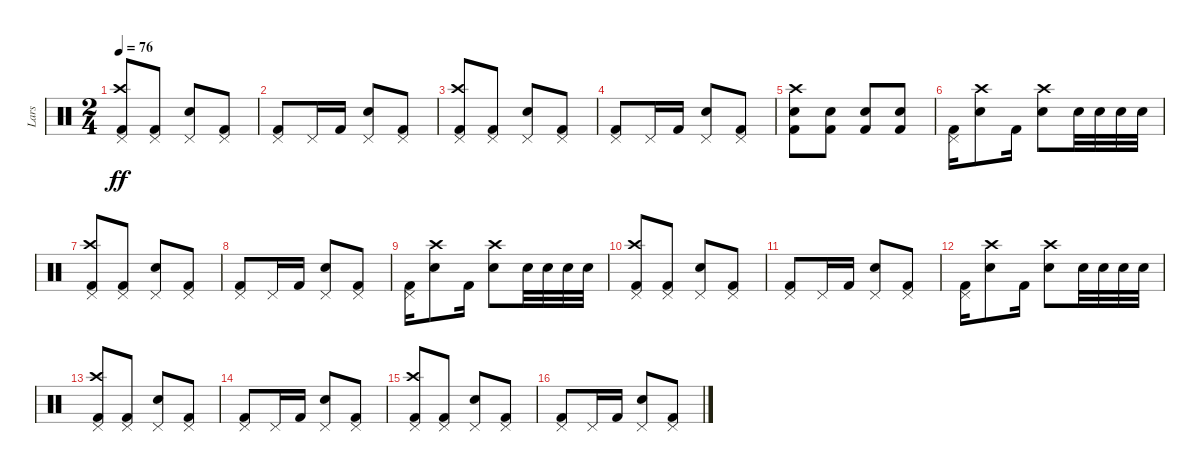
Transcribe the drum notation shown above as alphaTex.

\track ("Lars" "Lars") {instrument percussion}
\staff {score}
\articulation defaults
\ts (2 4)
\tempo 76
\clef neutral
\ks c
("Pedal Hi-Hat (hit)" "Crash high (hit)" "Kick (hit) 2").8{dy ff} ("Pedal Hi-Hat (hit)" "Kick (hit) 2").8 ("Pedal Hi-Hat (hit)" "Snare (hit) 2").8 ("Pedal Hi-Hat (hit)" "Kick (hit) 2").8 |
("Pedal Hi-Hat (hit)" "Kick (hit) 2").8 "Pedal Hi-Hat (hit)".16 "Kick (hit) 2".16 ("Pedal Hi-Hat (hit)" "Snare (hit) 2").8 ("Pedal Hi-Hat (hit)" "Kick (hit) 2").8 |
("Pedal Hi-Hat (hit)" "Crash high (hit)" "Kick (hit) 2").8 ("Pedal Hi-Hat (hit)" "Kick (hit) 2").8 ("Pedal Hi-Hat (hit)" "Snare (hit) 2").8 ("Pedal Hi-Hat (hit)" "Kick (hit) 2").8 |
("Pedal Hi-Hat (hit)" "Kick (hit) 2").8 "Pedal Hi-Hat (hit)".16 "Kick (hit) 2".16 ("Pedal Hi-Hat (hit)" "Snare (hit) 2").8 ("Pedal Hi-Hat (hit)" "Kick (hit) 2").8 |
("Crash high (hit)" "Snare (hit) 2" "Kick (hit) 2").8 ("Snare (hit) 2" "Kick (hit) 2").8 ("Snare (hit) 2" "Kick (hit) 2").8 ("Snare (hit) 2" "Kick (hit) 2").8 |
("Pedal Hi-Hat (hit)" "Kick (hit) 2").16 ("Crash high (hit)" "Snare (hit) 2").8 "Kick (hit) 2".16 ("Crash high (hit)" "Snare (hit) 2").8 "Snare (hit) 2".32 "Snare (hit) 2".32 "Snare (hit) 2".32 "Snare (hit) 2".32 |
("Pedal Hi-Hat (hit)" "Crash high (hit)" "Kick (hit) 2").8 ("Pedal Hi-Hat (hit)" "Kick (hit) 2").8 ("Pedal Hi-Hat (hit)" "Snare (hit) 2").8 ("Pedal Hi-Hat (hit)" "Kick (hit) 2").8 |
("Pedal Hi-Hat (hit)" "Kick (hit) 2").8 "Pedal Hi-Hat (hit)".16 "Kick (hit) 2".16 ("Pedal Hi-Hat (hit)" "Snare (hit) 2").8 ("Pedal Hi-Hat (hit)" "Kick (hit) 2").8 |
("Pedal Hi-Hat (hit)" "Kick (hit) 2").16 ("Crash high (hit)" "Snare (hit) 2").8 "Kick (hit) 2".16 ("Crash high (hit)" "Snare (hit) 2").8 "Snare (hit) 2".32 "Snare (hit) 2".32 "Snare (hit) 2".32 "Snare (hit) 2".32 |
("Pedal Hi-Hat (hit)" "Crash high (hit)" "Kick (hit) 2").8 ("Pedal Hi-Hat (hit)" "Kick (hit) 2").8 ("Pedal Hi-Hat (hit)" "Snare (hit) 2").8 ("Pedal Hi-Hat (hit)" "Kick (hit) 2").8 |
("Pedal Hi-Hat (hit)" "Kick (hit) 2").8 "Pedal Hi-Hat (hit)".16 "Kick (hit) 2".16 ("Pedal Hi-Hat (hit)" "Snare (hit) 2").8 ("Pedal Hi-Hat (hit)" "Kick (hit) 2").8 |
("Pedal Hi-Hat (hit)" "Kick (hit) 2").16 ("Crash high (hit)" "Snare (hit) 2").8 "Kick (hit) 2".16 ("Crash high (hit)" "Snare (hit) 2").8 "Snare (hit) 2".32 "Snare (hit) 2".32 "Snare (hit) 2".32 "Snare (hit) 2".32 |
("Pedal Hi-Hat (hit)" "Crash high (hit)" "Kick (hit) 2").8 ("Pedal Hi-Hat (hit)" "Kick (hit) 2").8 ("Pedal Hi-Hat (hit)" "Snare (hit) 2").8 ("Pedal Hi-Hat (hit)" "Kick (hit) 2").8 |
("Pedal Hi-Hat (hit)" "Kick (hit) 2").8 "Pedal Hi-Hat (hit)".16 "Kick (hit) 2".16 ("Pedal Hi-Hat (hit)" "Snare (hit) 2").8 ("Pedal Hi-Hat (hit)" "Kick (hit) 2").8 |
("Pedal Hi-Hat (hit)" "Crash high (hit)" "Kick (hit) 2").8 ("Pedal Hi-Hat (hit)" "Kick (hit) 2").8 ("Pedal Hi-Hat (hit)" "Snare (hit) 2").8 ("Pedal Hi-Hat (hit)" "Kick (hit) 2").8 |
("Pedal Hi-Hat (hit)" "Kick (hit) 2").8 "Pedal Hi-Hat (hit)".16 "Kick (hit) 2".16 ("Pedal Hi-Hat (hit)" "Snare (hit) 2").8 ("Pedal Hi-Hat (hit)" "Kick (hit) 2").8
